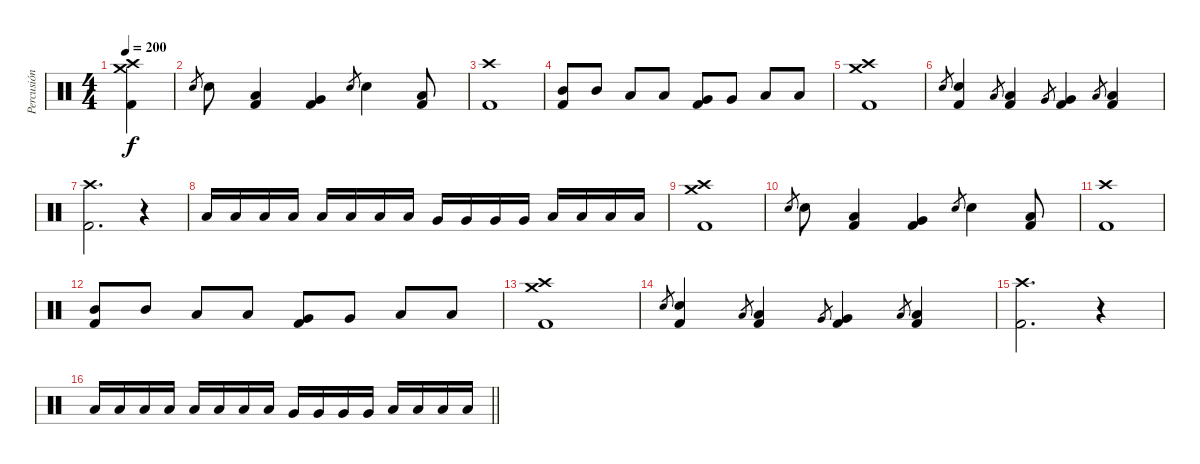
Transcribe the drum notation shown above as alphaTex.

\track ("Percusión" "Percusión") {instrument percussion}
\staff {score}
\articulation defaults
\ts (4 4)
\tempo 200
\clef neutral
\ks c
("Crash medium (hit)" "Crash high (hit)" "Kick (hit) 2").4{dy f} |
"Snare (hit) 2".8{gr} "Snare (hit) 2".8 ("Low Tom (hit)" "Kick (hit) 2").4 ("Very Low Tom (hit)" "Kick (hit) 2").4 "Snare (hit) 2".8{gr} "Snare (hit) 2".4 ("Low Floor Tom (hit)" "Kick (hit) 2").8 |
("Crash high (hit)" "Kick (hit) 2").1 |
("Kick (hit) 2" "Mid Tom (hit)").8 "Mid Tom (hit)".8 "Low Tom (hit)".8 "Low Tom (hit)".8 ("Kick (hit) 2" "Very Low Tom (hit)").8 "Very Low Tom (hit)".8 "Low Floor Tom (hit)".8 "Low Floor Tom (hit)".8 |
("Crash medium (hit)" "Crash high (hit)" "Kick (hit) 2").1 |
"Snare (hit) 2".8{gr} ("Kick (hit) 2" "Snare (hit) 2").4 "Low Tom (hit)".8{gr} ("Kick (hit) 2" "Low Tom (hit)").4 "Very Low Tom (hit)".8{gr} ("Kick (hit) 2" "Very Low Tom (hit)").4 "Low Floor Tom (hit)".8{gr} ("Kick (hit) 2" "Low Floor Tom (hit)").4 |
("Crash high (hit)" "Kick (hit) 2").2{d} r.4{volume 8} |
"Low Tom (hit)".16{volume 16} "Low Tom (hit)".16 "Low Tom (hit)".16 "Low Tom (hit)".16 "Low Tom (hit)".16 "Low Tom (hit)".16 "Low Tom (hit)".16 "Low Tom (hit)".16 "Very Low Tom (hit)".16 "Very Low Tom (hit)".16 "Very Low Tom (hit)".16 "Very Low Tom (hit)".16 "Low Floor Tom (hit)".16 "Low Floor Tom (hit)".16 "Low Floor Tom (hit)".16 "Low Floor Tom (hit)".16 |
("Crash medium (hit)" "Kick (hit) 2" "Crash high (hit)").1 |
"Snare (hit) 2".8{gr} "Snare (hit) 2".8 ("Low Tom (hit)" "Kick (hit) 2").4 ("Very Low Tom (hit)" "Kick (hit) 2").4 "Snare (hit) 2".8{gr} "Snare (hit) 2".4 ("Low Floor Tom (hit)" "Kick (hit) 2").8 |
("Crash high (hit)" "Kick (hit) 2").1 |
("Kick (hit) 2" "Mid Tom (hit)").8 "Mid Tom (hit)".8 "Low Tom (hit)".8 "Low Tom (hit)".8 ("Kick (hit) 2" "Very Low Tom (hit)").8 "Very Low Tom (hit)".8 "Low Floor Tom (hit)".8 "Low Floor Tom (hit)".8 |
("Crash medium (hit)" "Crash high (hit)" "Kick (hit) 2").1 |
"Snare (hit) 2".8{gr} ("Kick (hit) 2" "Snare (hit) 2").4 "Low Tom (hit)".8{gr} ("Kick (hit) 2" "Low Tom (hit)").4 "Very Low Tom (hit)".8{gr} ("Kick (hit) 2" "Very Low Tom (hit)").4 "Low Floor Tom (hit)".8{gr} ("Kick (hit) 2" "Low Floor Tom (hit)").4 |
("Crash high (hit)" "Kick (hit) 2").2{d} r.4{volume 8} |
\barLineRight lightlight "Low Tom (hit)".16{volume 16} "Low Tom (hit)".16 "Low Tom (hit)".16 "Low Tom (hit)".16 "Low Tom (hit)".16 "Low Tom (hit)".16 "Low Tom (hit)".16 "Low Tom (hit)".16 "Very Low Tom (hit)".16 "Very Low Tom (hit)".16 "Very Low Tom (hit)".16 "Very Low Tom (hit)".16 "Low Floor Tom (hit)".16 "Low Floor Tom (hit)".16 "Low Floor Tom (hit)".16 "Low Floor Tom (hit)".16
